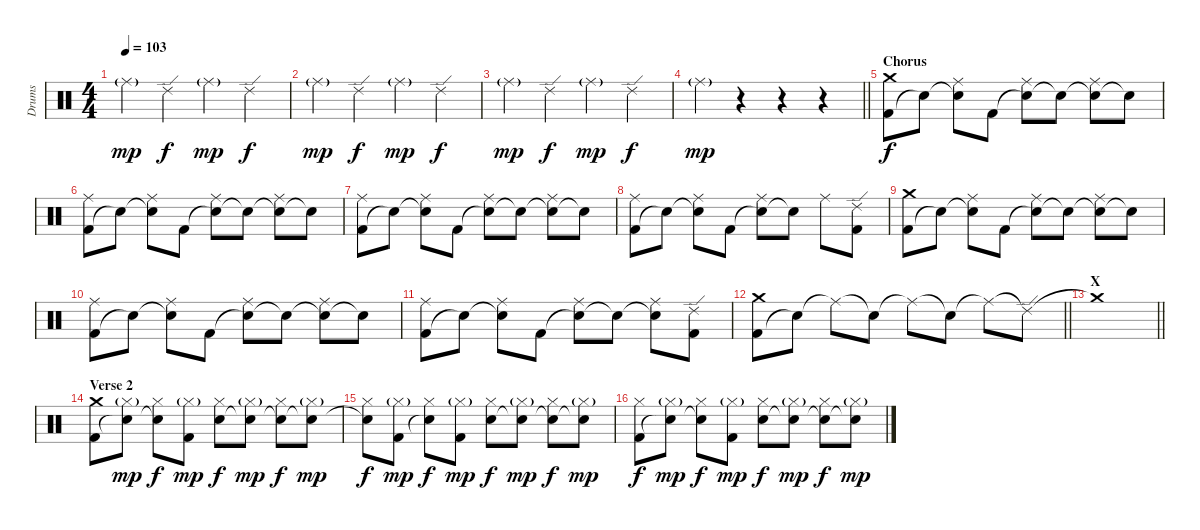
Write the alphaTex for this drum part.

\track ("Drums" "Drums") {instrument percussion}
\staff {score}
\articulation defaults
\ts (4 4)
\tempo 103
\clef neutral
\ks c "Ride (middle)"{g}.4{dy mp} "Ride (edge) 2".4{dy f} "Ride (middle)"{g}.4{dy mp} "Ride (edge) 2".4{dy f}
|
"Ride (middle)"{g}.4{dy mp} "Ride (edge) 2".4{dy f} "Ride (middle)"{g}.4{dy mp} "Ride (edge) 2".4{dy f} |
"Ride (middle)"{g}.4{dy mp} "Ride (edge) 2".4{dy f} "Ride (middle)"{g}.4{dy mp} "Ride (edge) 2".4{dy f} |
\barLineRight lightlight "Ride (middle)"{g}.4{dy mp}
r.4 r.4 r.4 |
\section ("" "Chorus")
("Kick (hit) 2" "Crash medium (hit)").8{dy f} "Snare (hit)"{t}.8 ("Snare (hit)"{t} "Ride (middle)").8 "Kick (hit) 2".8 ("Snare (hit)"{t} "Ride (middle)").8 "Snare (hit)"{t}.8 ("Snare (hit)"{t} "Ride (middle)").8 "Snare (hit)"{t}.8 |
("Kick (hit) 2" "Ride (middle)").8 "Snare (hit)"{t}.8 ("Snare (hit)"{t} "Ride (middle)").8 "Kick (hit) 2".8 ("Snare (hit)"{t} "Ride (middle)").8 "Snare (hit)"{t}.8 ("Snare (hit)"{t} "Ride (middle)").8 "Snare (hit)"{t}.8 |
("Kick (hit) 2" "Ride (middle)").8 "Snare (hit)"{t}.8 ("Snare (hit)"{t} "Ride (middle)").8 "Kick (hit) 2".8 ("Snare (hit)"{t} "Ride (middle)").8 "Snare (hit)"{t}.8 ("Snare (hit)"{t} "Ride (middle)").8 "Snare (hit)"{t}.8 |
("Kick (hit) 2" "Ride (middle)").8 "Snare (hit)"{t}.8 ("Snare (hit)"{t} "Ride (middle)").8 "Kick (hit) 2".8 ("Snare (hit)"{t} "Ride (middle)").8 "Snare (hit)"{t}.8 "Ride (middle)".8 ("Kick (hit) 2" "Ride (edge) 2").8 |
("Kick (hit) 2" "Crash medium (hit)").8 "Snare (hit)"{t}.8 ("Snare (hit)"{t} "Ride (middle)").8 "Kick (hit) 2".8 ("Snare (hit)"{t} "Ride (middle)").8 "Snare (hit)"{t}.8 ("Snare (hit)"{t} "Ride (middle)").8 "Snare (hit)"{t}.8 |
("Kick (hit) 2" "Ride (middle)").8 "Snare (hit)"{t}.8 ("Snare (hit)"{t} "Ride (middle)").8 "Kick (hit) 2".8 ("Snare (hit)"{t} "Ride (middle)").8 "Snare (hit)"{t}.8 ("Snare (hit)"{t} "Ride (middle)").8 "Snare (hit)"{t}.8 |
("Kick (hit) 2" "Ride (middle)").8 "Snare (hit)"{t}.8 ("Snare (hit)"{t} "Ride (middle)").8 "Kick (hit) 2".8 ("Snare (hit)"{t} "Ride (middle)").8 "Snare (hit)"{t}.8 ("Snare (hit)"{t} "Ride (middle)").8 ("Kick (hit) 2" "Ride (edge) 2").8 |
\barLineRight lightlight
("Kick (hit) 2" "Crash medium (hit)").8 "Snare (hit)"{t}.8 "Ride (middle)"{t}.8 "Snare (hit)"{t}.8 "Ride (middle)"{t}.8 "Snare (hit)"{t}.8 "Ride (middle)"{t}.8 "Ride (edge) 2"{t}.8 |
\section ("" "X")
\barLineRight lightlight "Crash medium (hit)"{t}.1
|
\section ("" "Verse 2")
("Kick (hit) 2" "Crash medium (hit)").8 ("Snare (hit)"{t} "Hi-Hat (closed)"{g}).8{dy mp} ("Snare (hit)"{t} "Hi-Hat (closed)").8{dy f} ("Kick (hit) 2" "Hi-Hat (closed)"{g}).8{dy mp} ("Electric Snare (hit)" "Hi-Hat (closed)").8{dy f} ("Snare (hit)"{t} "Hi-Hat (closed)"{g}).8{dy mp} ("Snare (hit)"{t} "Hi-Hat (closed)").8{dy f} ("Snare (hit)"{t} "Hi-Hat (closed)"{g}).8{dy mp} |
("Snare (hit)"{t} "Hi-Hat (closed)").8{dy f} ("Kick (hit) 2" "Hi-Hat (closed)"{g}).8{dy mp} ("Snare (hit)"{t} "Hi-Hat (closed)").8{dy f} ("Kick (hit) 2" "Hi-Hat (closed)"{g}).8{dy mp} ("Electric Snare (hit)" "Hi-Hat (closed)").8{dy f} ("Snare (hit)"{t} "Hi-Hat (closed)"{g}).8{dy mp} ("Snare (hit)"{t} "Hi-Hat (closed)").8{dy f} ("Snare (hit)"{t} "Hi-Hat (closed)"{g}).8{dy mp} |
("Kick (hit) 2" "Hi-Hat (closed)").8{dy f} ("Snare (hit)"{t} "Hi-Hat (closed)"{g}).8{dy mp} ("Snare (hit)"{t} "Hi-Hat (closed)").8{dy f} ("Kick (hit) 2" "Hi-Hat (closed)"{g}).8{dy mp} ("Electric Snare (hit)" "Hi-Hat (closed)").8{dy f} ("Snare (hit)"{t} "Hi-Hat (closed)"{g}).8{dy mp} ("Snare (hit)"{t} "Hi-Hat (closed)").8{dy f} ("Snare (hit)"{t} "Hi-Hat (closed)"{g}).8{dy mp}
